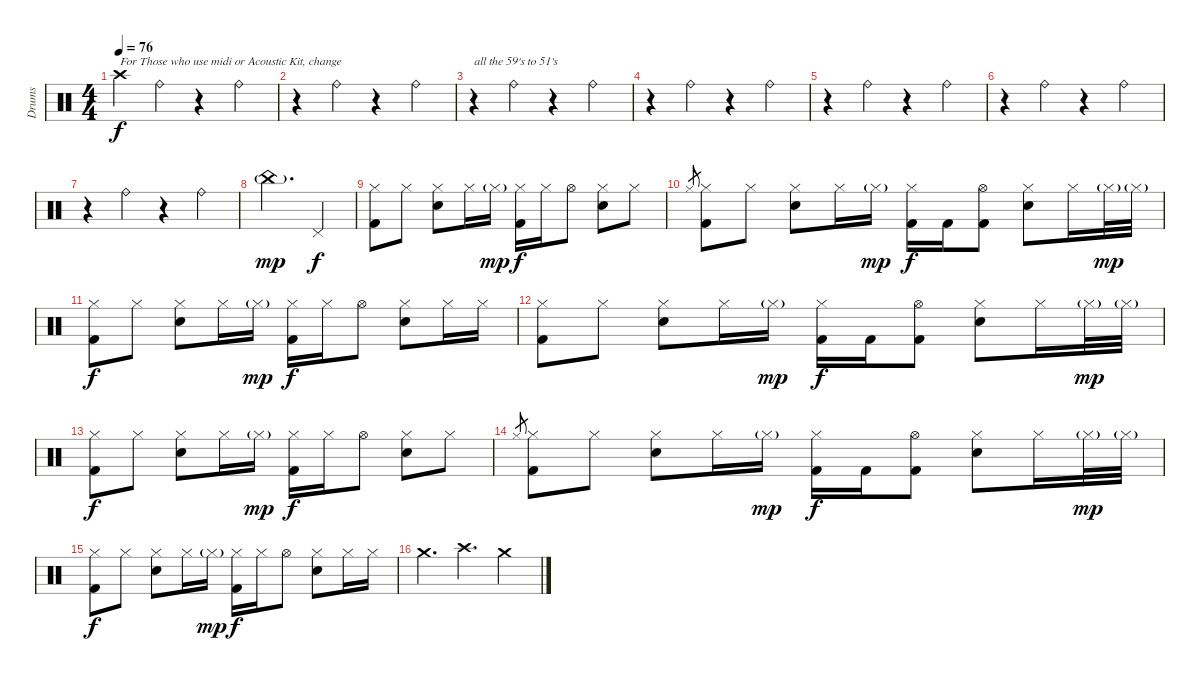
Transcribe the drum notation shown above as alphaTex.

\track ("Drums" "Drums") {instrument percussion}
\staff {score}
\articulation defaults
\ts (4 4)
\tempo 76
\clef neutral
\ks c "Crash high (hit)".4{txt "For Those who use midi or Acoustic Kit, change " dy f} "Ride (bell)".4
r.4 "Ride (bell)".4 |
r.4 "Ride (bell)".4 r.4 "Ride (bell)".4 |
r.4{txt "all the 59's to 51's"} "Ride (bell)".4 r.4 "Ride (bell)".4 |
r.4 "Ride (bell)".4 r.4 "Ride (bell)".4 |
r.4 "Ride (bell)".4 r.4 "Ride (bell)".4 |
r.4 "Ride (bell)".4 r.4 "Ride (bell)".4 |
r.4 "Ride (bell)".4 r.4 "Ride (bell)".4 |
"China (hit)"{g}.2{d dy mp} "Pedal Hi-Hat (hit)".4{dy f} |
("Hi-Hat (closed)" "Kick (hit) 2").8 "Hi-Hat (closed)".8 ("Hi-Hat (closed)" "Electric Snare (hit)").8 "Hi-Hat (closed)".16 "Hi-Hat (closed)"{g}.16{dy mp} ("Hi-Hat (closed)" "Kick (hit) 2").16{dy f} "Hi-Hat (closed)".16 "Hi-Hat (open)".8 ("Hi-Hat (closed)" "Electric Snare (hit)").8 "Hi-Hat (closed)".8 |
"Hi-Hat (closed)".8{gr} ("Hi-Hat (closed)" "Kick (hit) 2").8 "Hi-Hat (closed)".8 ("Hi-Hat (closed)" "Electric Snare (hit)").8 "Hi-Hat (closed)".16 "Hi-Hat (closed)"{g}.16{dy mp} ("Hi-Hat (closed)" "Kick (hit) 2").16{dy f} "Kick (hit) 2".16 ("Hi-Hat (open)" "Kick (hit) 2").8 ("Hi-Hat (closed)" "Electric Snare (hit)").8 "Hi-Hat (closed)".16 "Hi-Hat (closed)"{g}.32{dy mp} "Hi-Hat (closed)"{g}.32 |
("Hi-Hat (closed)" "Kick (hit) 2").8{dy f} "Hi-Hat (closed)".8 ("Hi-Hat (closed)" "Electric Snare (hit)").8 "Hi-Hat (closed)".16 "Hi-Hat (closed)"{g}.16{dy mp} ("Hi-Hat (closed)" "Kick (hit) 2").16{dy f} "Hi-Hat (closed)".16 "Hi-Hat (open)".8 ("Hi-Hat (closed)" "Electric Snare (hit)").8 "Hi-Hat (closed)".16 "Hi-Hat (closed)".16 |
("Hi-Hat (closed)" "Kick (hit) 2").8 "Hi-Hat (closed)".8 ("Hi-Hat (closed)" "Electric Snare (hit)").8 "Hi-Hat (closed)".16 "Hi-Hat (closed)"{g}.16{dy mp} ("Hi-Hat (closed)" "Kick (hit) 2").16{dy f} "Kick (hit) 2".16 ("Hi-Hat (open)" "Kick (hit) 2").8 ("Hi-Hat (closed)" "Electric Snare (hit)").8 "Hi-Hat (closed)".16 "Hi-Hat (closed)"{g}.32{dy mp} "Hi-Hat (closed)"{g}.32 |
("Hi-Hat (closed)" "Kick (hit) 2").8{dy f} "Hi-Hat (closed)".8 ("Hi-Hat (closed)" "Electric Snare (hit)").8 "Hi-Hat (closed)".16 "Hi-Hat (closed)"{g}.16{dy mp} ("Hi-Hat (closed)" "Kick (hit) 2").16{dy f} "Hi-Hat (closed)".16 "Hi-Hat (open)".8 ("Hi-Hat (closed)" "Electric Snare (hit)").8 "Hi-Hat (closed)".8 |
"Hi-Hat (closed)".8{gr} ("Hi-Hat (closed)" "Kick (hit) 2").8 "Hi-Hat (closed)".8 ("Hi-Hat (closed)" "Electric Snare (hit)").8 "Hi-Hat (closed)".16 "Hi-Hat (closed)"{g}.16{dy mp} ("Hi-Hat (closed)" "Kick (hit) 2").16{dy f} "Kick (hit) 2".16 ("Hi-Hat (open)" "Kick (hit) 2").8 ("Hi-Hat (closed)" "Electric Snare (hit)").8 "Hi-Hat (closed)".16 "Hi-Hat (closed)"{g}.32{dy mp} "Hi-Hat (closed)"{g}.32 |
("Hi-Hat (closed)" "Kick (hit) 2").8{dy f} "Hi-Hat (closed)".8 ("Hi-Hat (closed)" "Electric Snare (hit)").8 "Hi-Hat (closed)".16 "Hi-Hat (closed)"{g}.16{dy mp} ("Hi-Hat (closed)" "Kick (hit) 2").16{dy f} "Hi-Hat (closed)".16 "Hi-Hat (open)".8 ("Hi-Hat (closed)" "Electric Snare (hit)").8 "Hi-Hat (closed)".16 "Hi-Hat (closed)".16 |
"Crash medium (hit)".4{d} "Crash high (hit)".4{d} "Crash medium (hit)".4
